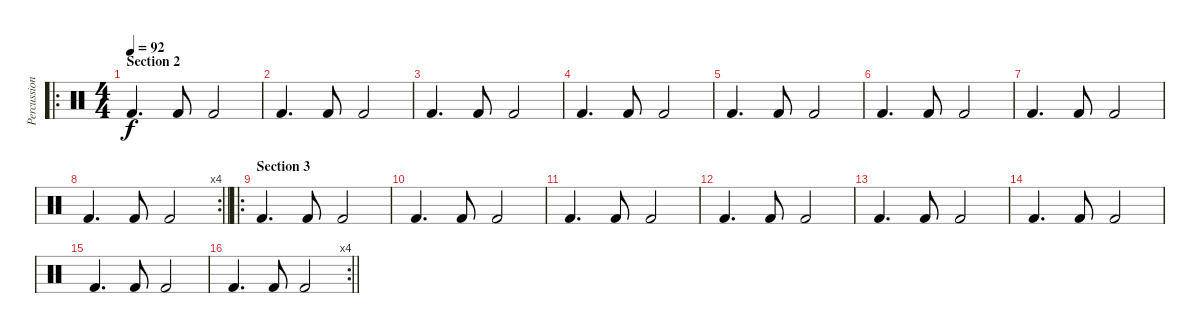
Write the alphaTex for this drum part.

\track ("Percussion" "Percussion") {instrument percussion}
\staff {score}
\articulation defaults
\ro
\ts (4 4)
\section ("" "Section 2")
\tempo 92
\clef neutral
\ks c "Kick (hit) 2".4{d dy f} "Kick (hit) 2".8 "Kick (hit) 2".2
|
"Kick (hit) 2".4{d} "Kick (hit) 2".8 "Kick (hit) 2".2 |
"Kick (hit) 2".4{d} "Kick (hit) 2".8 "Kick (hit) 2".2 |
"Kick (hit) 2".4{d} "Kick (hit) 2".8 "Kick (hit) 2".2 |
"Kick (hit) 2".4{d} "Kick (hit) 2".8 "Kick (hit) 2".2 |
"Kick (hit) 2".4{d} "Kick (hit) 2".8 "Kick (hit) 2".2 |
"Kick (hit) 2".4{d} "Kick (hit) 2".8 "Kick (hit) 2".2 |
\rc 4
\barLineRight lightlight "Kick (hit) 2".4{d} "Kick (hit) 2".8 "Kick (hit) 2".2
|
\ro
\section ("" "Section 3")
"Kick (hit) 2".4{d} "Kick (hit) 2".8 "Kick (hit) 2".2 |
"Kick (hit) 2".4{d} "Kick (hit) 2".8 "Kick (hit) 2".2 |
"Kick (hit) 2".4{d} "Kick (hit) 2".8 "Kick (hit) 2".2 |
"Kick (hit) 2".4{d} "Kick (hit) 2".8 "Kick (hit) 2".2 |
"Kick (hit) 2".4{d} "Kick (hit) 2".8 "Kick (hit) 2".2 |
"Kick (hit) 2".4{d} "Kick (hit) 2".8 "Kick (hit) 2".2 |
"Kick (hit) 2".4{d} "Kick (hit) 2".8 "Kick (hit) 2".2 |
\rc 4
\barLineRight lightlight "Kick (hit) 2".4{d} "Kick (hit) 2".8 "Kick (hit) 2".2
